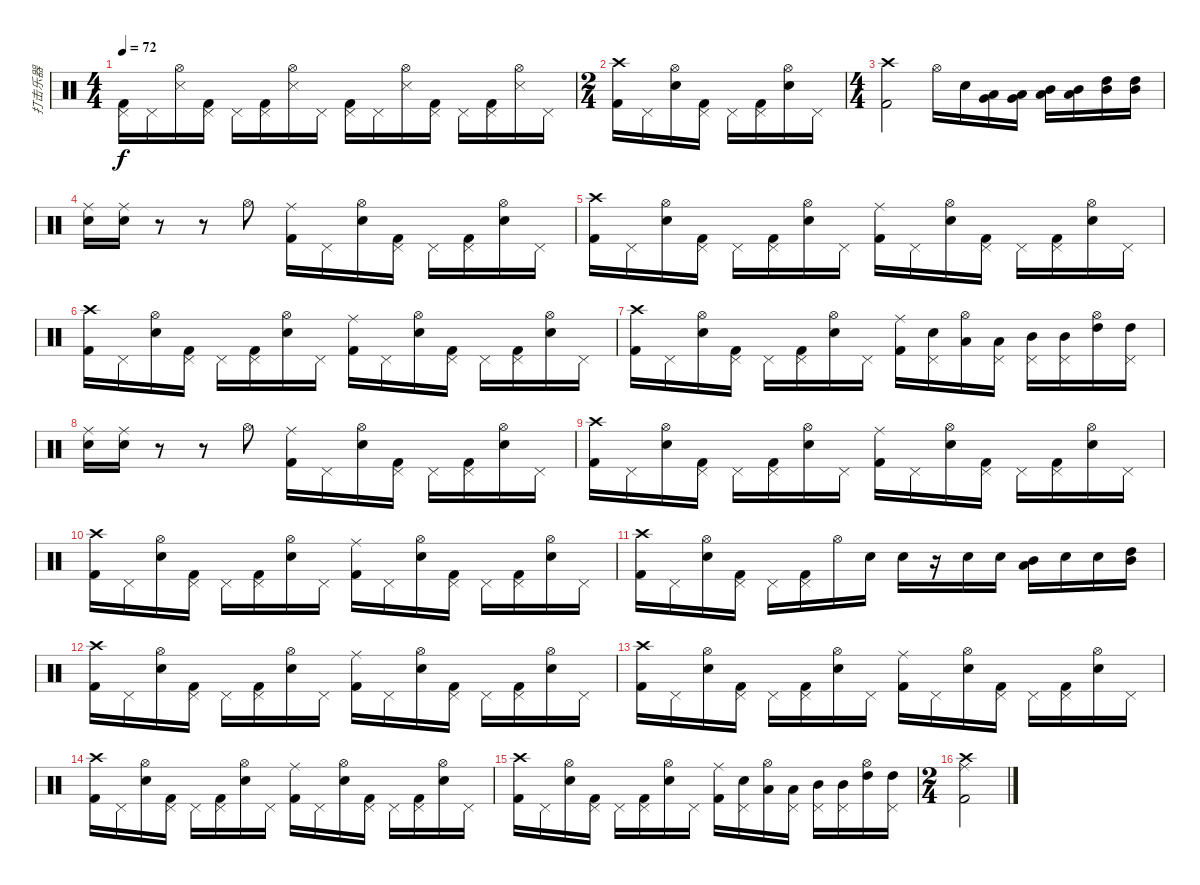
\track ("打击乐器" "打击乐器") {instrument percussion}
\staff {score}
\articulation defaults
\ts (4 4)
\tempo 72
\clef neutral
\ks c
("Pedal Hi-Hat (hit)" "Kick (hit) 2").16{dy f} "Pedal Hi-Hat (hit)".16 ("Hi-Hat (open)" "Snare (side stick) 3").16 ("Pedal Hi-Hat (hit)" "Kick (hit) 2").16 "Pedal Hi-Hat (hit)".16 ("Pedal Hi-Hat (hit)" "Kick (hit) 2").16 ("Hi-Hat (open)" "Snare (side stick) 3").16 "Pedal Hi-Hat (hit)".16 ("Pedal Hi-Hat (hit)" "Kick (hit) 2").16 "Pedal Hi-Hat (hit)".16 ("Hi-Hat (open)" "Snare (side stick) 3").16 ("Pedal Hi-Hat (hit)" "Kick (hit) 2").16 "Pedal Hi-Hat (hit)".16 ("Pedal Hi-Hat (hit)" "Kick (hit) 2").16 ("Hi-Hat (open)" "Snare (side stick) 3").16 "Pedal Hi-Hat (hit)".16 |
\ts (2 4)
("Crash high (hit)" "Kick (hit) 2").16 "Pedal Hi-Hat (hit)".16 ("Hi-Hat (open)" "Electric Snare (hit)").16 ("Pedal Hi-Hat (hit)" "Kick (hit) 2").16 "Pedal Hi-Hat (hit)".16 ("Pedal Hi-Hat (hit)" "Kick (hit) 2").16 ("Hi-Hat (open)" "Electric Snare (hit)").16 "Pedal Hi-Hat (hit)".16 |
\ts (4 4)
("Crash high (hit)" "Kick (hit) 2").2 "Hi-Hat (open)".16 "Snare (hit) 2".16 ("Very Low Tom (hit)" "Low Tom (hit)").16 ("Very Low Tom (hit)" "Low Tom (hit)").16 ("Low Tom (hit)" "Mid Tom (hit)").16 ("Low Tom (hit)" "Mid Tom (hit)").16 ("Mid Tom (hit)" "High Tom (hit)").16 ("Mid Tom (hit)" "High Tom (hit)").16 |
("Ride (middle)" "Electric Snare (hit)").16 ("Ride (middle)" "Electric Snare (hit)").16 r.8 r.8 "Hi-Hat (open)".8 ("Ride (middle)" "Kick (hit) 2").16 "Pedal Hi-Hat (hit)".16 ("Hi-Hat (open)" "Electric Snare (hit)").16 ("Pedal Hi-Hat (hit)" "Kick (hit) 2").16 "Pedal Hi-Hat (hit)".16 ("Pedal Hi-Hat (hit)" "Kick (hit) 2").16 ("Hi-Hat (open)" "Electric Snare (hit)").16 "Pedal Hi-Hat (hit)".16 |
("Crash high (hit)" "Kick (hit) 2").16 "Pedal Hi-Hat (hit)".16 ("Hi-Hat (open)" "Electric Snare (hit)").16 ("Pedal Hi-Hat (hit)" "Kick (hit) 2").16 "Pedal Hi-Hat (hit)".16 ("Pedal Hi-Hat (hit)" "Kick (hit) 2").16 ("Hi-Hat (open)" "Electric Snare (hit)").16 "Pedal Hi-Hat (hit)".16 ("Ride (middle)" "Kick (hit) 2").16 "Pedal Hi-Hat (hit)".16 ("Hi-Hat (open)" "Electric Snare (hit)").16 ("Pedal Hi-Hat (hit)" "Kick (hit) 2").16 "Pedal Hi-Hat (hit)".16 ("Pedal Hi-Hat (hit)" "Kick (hit) 2").16 ("Hi-Hat (open)" "Electric Snare (hit)").16 "Pedal Hi-Hat (hit)".16 |
("Crash high (hit)" "Kick (hit) 2").16 "Pedal Hi-Hat (hit)".16 ("Hi-Hat (open)" "Electric Snare (hit)").16 ("Pedal Hi-Hat (hit)" "Kick (hit) 2").16 "Pedal Hi-Hat (hit)".16 ("Pedal Hi-Hat (hit)" "Kick (hit) 2").16 ("Hi-Hat (open)" "Electric Snare (hit)").16 "Pedal Hi-Hat (hit)".16 ("Ride (middle)" "Kick (hit) 2").16 "Pedal Hi-Hat (hit)".16 ("Hi-Hat (open)" "Electric Snare (hit)").16 ("Pedal Hi-Hat (hit)" "Kick (hit) 2").16 "Pedal Hi-Hat (hit)".16 ("Pedal Hi-Hat (hit)" "Kick (hit) 2").16 ("Hi-Hat (open)" "Electric Snare (hit)").16 "Pedal Hi-Hat (hit)".16 |
("Crash high (hit)" "Kick (hit) 2").16 "Pedal Hi-Hat (hit)".16 ("Hi-Hat (open)" "Electric Snare (hit)").16 ("Pedal Hi-Hat (hit)" "Kick (hit) 2").16 "Pedal Hi-Hat (hit)".16 ("Pedal Hi-Hat (hit)" "Kick (hit) 2").16 ("Hi-Hat (open)" "Electric Snare (hit)").16 "Pedal Hi-Hat (hit)".16 ("Ride (middle)" "Kick (hit) 2").16 ("Pedal Hi-Hat (hit)" "Electric Snare (hit)").16 ("Hi-Hat (open)" "Low Tom (hit)").16 ("Pedal Hi-Hat (hit)" "Low Tom (hit)").16 ("Pedal Hi-Hat (hit)" "Mid Tom (hit)").16 ("Pedal Hi-Hat (hit)" "Mid Tom (hit)").16 ("Hi-Hat (open)" "High Tom (hit)").16 ("Pedal Hi-Hat (hit)" "High Tom (hit)").16 |
("Ride (middle)" "Electric Snare (hit)").16 ("Ride (middle)" "Electric Snare (hit)").16 r.8 r.8 "Hi-Hat (open)".8 ("Ride (middle)" "Kick (hit) 2").16 "Pedal Hi-Hat (hit)".16 ("Hi-Hat (open)" "Electric Snare (hit)").16 ("Pedal Hi-Hat (hit)" "Kick (hit) 2").16 "Pedal Hi-Hat (hit)".16 ("Pedal Hi-Hat (hit)" "Kick (hit) 2").16 ("Hi-Hat (open)" "Electric Snare (hit)").16 "Pedal Hi-Hat (hit)".16 |
("Crash high (hit)" "Kick (hit) 2").16 "Pedal Hi-Hat (hit)".16 ("Hi-Hat (open)" "Electric Snare (hit)").16 ("Pedal Hi-Hat (hit)" "Kick (hit) 2").16 "Pedal Hi-Hat (hit)".16 ("Pedal Hi-Hat (hit)" "Kick (hit) 2").16 ("Hi-Hat (open)" "Electric Snare (hit)").16 "Pedal Hi-Hat (hit)".16 ("Ride (middle)" "Kick (hit) 2").16 "Pedal Hi-Hat (hit)".16 ("Hi-Hat (open)" "Electric Snare (hit)").16 ("Pedal Hi-Hat (hit)" "Kick (hit) 2").16 "Pedal Hi-Hat (hit)".16 ("Pedal Hi-Hat (hit)" "Kick (hit) 2").16 ("Hi-Hat (open)" "Electric Snare (hit)").16 "Pedal Hi-Hat (hit)".16 |
("Crash high (hit)" "Kick (hit) 2").16 "Pedal Hi-Hat (hit)".16 ("Hi-Hat (open)" "Electric Snare (hit)").16 ("Pedal Hi-Hat (hit)" "Kick (hit) 2").16 "Pedal Hi-Hat (hit)".16 ("Pedal Hi-Hat (hit)" "Kick (hit) 2").16 ("Hi-Hat (open)" "Electric Snare (hit)").16 "Pedal Hi-Hat (hit)".16 ("Ride (middle)" "Kick (hit) 2").16 "Pedal Hi-Hat (hit)".16 ("Hi-Hat (open)" "Electric Snare (hit)").16 ("Pedal Hi-Hat (hit)" "Kick (hit) 2").16 "Pedal Hi-Hat (hit)".16 ("Pedal Hi-Hat (hit)" "Kick (hit) 2").16 ("Hi-Hat (open)" "Electric Snare (hit)").16 "Pedal Hi-Hat (hit)".16 |
("Crash high (hit)" "Kick (hit) 2").16 "Pedal Hi-Hat (hit)".16 ("Hi-Hat (open)" "Electric Snare (hit)").16 ("Pedal Hi-Hat (hit)" "Kick (hit) 2").16 "Pedal Hi-Hat (hit)".16 ("Pedal Hi-Hat (hit)" "Kick (hit) 2").16 "Hi-Hat (open)".16 "Snare (hit) 2".16 "Snare (hit) 2".16 r.16 "Snare (hit) 2".16 "Snare (hit) 2".16 ("Mid Tom (hit)" "Low Tom (hit)").16 "Snare (hit) 2".16 "Snare (hit) 2".16 ("High Tom (hit)" "Mid Tom (hit)").16 |
("Crash high (hit)" "Kick (hit) 2").16 "Pedal Hi-Hat (hit)".16 ("Hi-Hat (open)" "Electric Snare (hit)").16 ("Pedal Hi-Hat (hit)" "Kick (hit) 2").16 "Pedal Hi-Hat (hit)".16 ("Pedal Hi-Hat (hit)" "Kick (hit) 2").16 ("Hi-Hat (open)" "Electric Snare (hit)").16 "Pedal Hi-Hat (hit)".16 ("Ride (middle)" "Kick (hit) 2").16 "Pedal Hi-Hat (hit)".16 ("Hi-Hat (open)" "Electric Snare (hit)").16 ("Pedal Hi-Hat (hit)" "Kick (hit) 2").16 "Pedal Hi-Hat (hit)".16 ("Pedal Hi-Hat (hit)" "Kick (hit) 2").16 ("Hi-Hat (open)" "Electric Snare (hit)").16 "Pedal Hi-Hat (hit)".16 |
("Crash high (hit)" "Kick (hit) 2").16 "Pedal Hi-Hat (hit)".16 ("Hi-Hat (open)" "Electric Snare (hit)").16 ("Pedal Hi-Hat (hit)" "Kick (hit) 2").16 "Pedal Hi-Hat (hit)".16 ("Pedal Hi-Hat (hit)" "Kick (hit) 2").16 ("Hi-Hat (open)" "Electric Snare (hit)").16 "Pedal Hi-Hat (hit)".16 ("Ride (middle)" "Kick (hit) 2").16 "Pedal Hi-Hat (hit)".16 ("Hi-Hat (open)" "Electric Snare (hit)").16 ("Pedal Hi-Hat (hit)" "Kick (hit) 2").16 "Pedal Hi-Hat (hit)".16 ("Pedal Hi-Hat (hit)" "Kick (hit) 2").16 ("Hi-Hat (open)" "Electric Snare (hit)").16 "Pedal Hi-Hat (hit)".16 |
("Crash high (hit)" "Kick (hit) 2").16 "Pedal Hi-Hat (hit)".16 ("Hi-Hat (open)" "Electric Snare (hit)").16 ("Pedal Hi-Hat (hit)" "Kick (hit) 2").16 "Pedal Hi-Hat (hit)".16 ("Pedal Hi-Hat (hit)" "Kick (hit) 2").16 ("Hi-Hat (open)" "Electric Snare (hit)").16 "Pedal Hi-Hat (hit)".16 ("Ride (middle)" "Kick (hit) 2").16 "Pedal Hi-Hat (hit)".16 ("Hi-Hat (open)" "Electric Snare (hit)").16 ("Pedal Hi-Hat (hit)" "Kick (hit) 2").16 "Pedal Hi-Hat (hit)".16 ("Pedal Hi-Hat (hit)" "Kick (hit) 2").16 ("Hi-Hat (open)" "Electric Snare (hit)").16 "Pedal Hi-Hat (hit)".16 |
("Crash high (hit)" "Kick (hit) 2").16 "Pedal Hi-Hat (hit)".16 ("Hi-Hat (open)" "Electric Snare (hit)").16 ("Pedal Hi-Hat (hit)" "Kick (hit) 2").16 "Pedal Hi-Hat (hit)".16 ("Pedal Hi-Hat (hit)" "Kick (hit) 2").16 ("Hi-Hat (open)" "Electric Snare (hit)").16 "Pedal Hi-Hat (hit)".16 ("Ride (middle)" "Kick (hit) 2").16 ("Pedal Hi-Hat (hit)" "Electric Snare (hit)").16 ("Hi-Hat (open)" "Low Tom (hit)").16 ("Pedal Hi-Hat (hit)" "Low Tom (hit)").16 ("Pedal Hi-Hat (hit)" "Mid Tom (hit)").16 ("Pedal Hi-Hat (hit)" "Mid Tom (hit)").16 ("Hi-Hat (open)" "High Tom (hit)").16 ("Pedal Hi-Hat (hit)" "High Tom (hit)").16 |
\ts (2 4)
("Crash high (hit)" "Ride (middle)" "Kick (hit) 2").2
